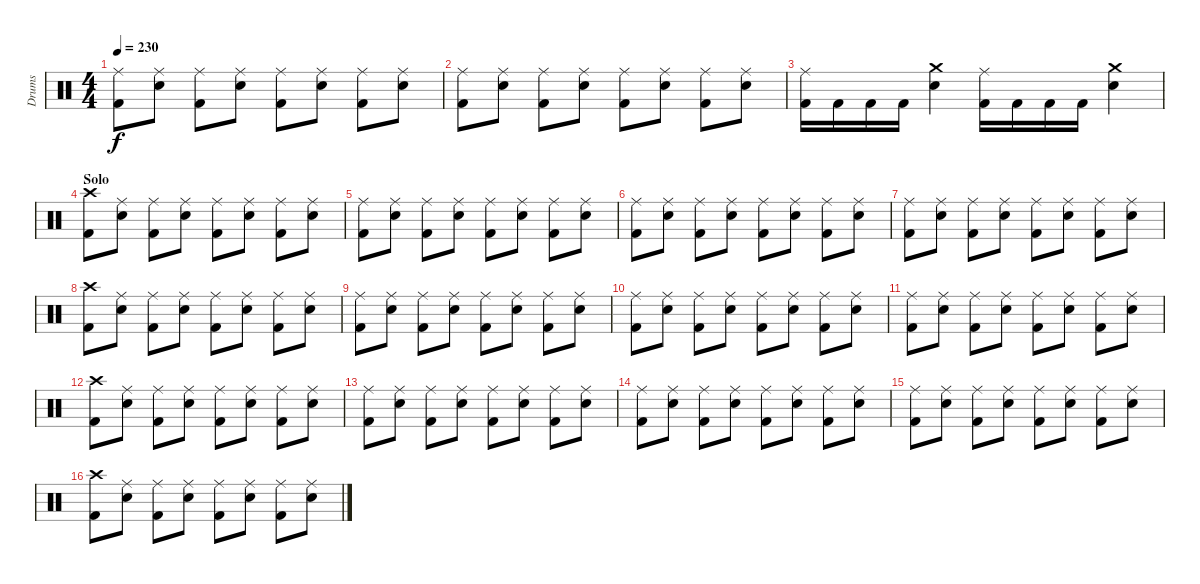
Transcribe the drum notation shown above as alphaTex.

\track ("Drums" "Drums") {instrument percussion}
\staff {score}
\articulation defaults
\ts (4 4)
\tempo 230
\clef neutral
\ks c
("Ride (middle)" "Kick (hit) 2").8{dy f} ("Ride (middle)" "Snare (hit) 2").8 ("Ride (middle)" "Kick (hit) 2").8 ("Ride (middle)" "Snare (hit) 2").8 ("Ride (middle)" "Kick (hit) 2").8 ("Ride (middle)" "Snare (hit) 2").8 ("Ride (middle)" "Kick (hit) 2").8 ("Ride (middle)" "Snare (hit) 2").8 |
("Ride (middle)" "Kick (hit) 2").8 ("Ride (middle)" "Snare (hit) 2").8 ("Ride (middle)" "Kick (hit) 2").8 ("Ride (middle)" "Snare (hit) 2").8 ("Ride (middle)" "Kick (hit) 2").8 ("Ride (middle)" "Snare (hit) 2").8 ("Ride (middle)" "Kick (hit) 2").8 ("Ride (middle)" "Snare (hit) 2").8 |
\section ("" "")
("Ride (middle)" "Kick (hit) 2").16 "Kick (hit) 2".16 "Kick (hit) 2".16 "Kick (hit) 2".16 ("Crash medium (hit)" "Snare (hit) 2").4 ("Ride (middle)" "Kick (hit) 2").16 "Kick (hit) 2".16 "Kick (hit) 2".16 "Kick (hit) 2".16 ("Crash medium (hit)" "Snare (hit) 2").4 |
\section ("" "Solo")
("Crash high (hit)" "Kick (hit) 2").8 ("Ride (middle)" "Snare (hit) 2").8 ("Ride (middle)" "Kick (hit) 2").8 ("Ride (middle)" "Snare (hit) 2").8 ("Ride (middle)" "Kick (hit) 2").8 ("Ride (middle)" "Snare (hit) 2").8 ("Ride (middle)" "Kick (hit) 2").8 ("Ride (middle)" "Snare (hit) 2").8 |
("Ride (middle)" "Kick (hit) 2").8 ("Ride (middle)" "Snare (hit) 2").8 ("Ride (middle)" "Kick (hit) 2").8 ("Ride (middle)" "Snare (hit) 2").8 ("Ride (middle)" "Kick (hit) 2").8 ("Ride (middle)" "Snare (hit) 2").8 ("Ride (middle)" "Kick (hit) 2").8 ("Ride (middle)" "Snare (hit) 2").8 |
("Ride (middle)" "Kick (hit) 2").8 ("Ride (middle)" "Snare (hit) 2").8 ("Ride (middle)" "Kick (hit) 2").8 ("Ride (middle)" "Snare (hit) 2").8 ("Ride (middle)" "Kick (hit) 2").8 ("Ride (middle)" "Snare (hit) 2").8 ("Ride (middle)" "Kick (hit) 2").8 ("Ride (middle)" "Snare (hit) 2").8 |
("Ride (middle)" "Kick (hit) 2").8 ("Ride (middle)" "Snare (hit) 2").8 ("Ride (middle)" "Kick (hit) 2").8 ("Ride (middle)" "Snare (hit) 2").8 ("Ride (middle)" "Kick (hit) 2").8 ("Ride (middle)" "Snare (hit) 2").8 ("Ride (middle)" "Kick (hit) 2").8 ("Ride (middle)" "Snare (hit) 2").8 |
("Crash high (hit)" "Kick (hit) 2").8 ("Ride (middle)" "Snare (hit) 2").8 ("Ride (middle)" "Kick (hit) 2").8 ("Ride (middle)" "Snare (hit) 2").8 ("Ride (middle)" "Kick (hit) 2").8 ("Ride (middle)" "Snare (hit) 2").8 ("Ride (middle)" "Kick (hit) 2").8 ("Ride (middle)" "Snare (hit) 2").8 |
("Ride (middle)" "Kick (hit) 2").8 ("Ride (middle)" "Snare (hit) 2").8 ("Ride (middle)" "Kick (hit) 2").8 ("Ride (middle)" "Snare (hit) 2").8 ("Ride (middle)" "Kick (hit) 2").8 ("Ride (middle)" "Snare (hit) 2").8 ("Ride (middle)" "Kick (hit) 2").8 ("Ride (middle)" "Snare (hit) 2").8 |
("Ride (middle)" "Kick (hit) 2").8 ("Ride (middle)" "Snare (hit) 2").8 ("Ride (middle)" "Kick (hit) 2").8 ("Ride (middle)" "Snare (hit) 2").8 ("Ride (middle)" "Kick (hit) 2").8 ("Ride (middle)" "Snare (hit) 2").8 ("Ride (middle)" "Kick (hit) 2").8 ("Ride (middle)" "Snare (hit) 2").8 |
("Ride (middle)" "Kick (hit) 2").8 ("Ride (middle)" "Snare (hit) 2").8 ("Ride (middle)" "Kick (hit) 2").8 ("Ride (middle)" "Snare (hit) 2").8 ("Ride (middle)" "Kick (hit) 2").8 ("Ride (middle)" "Snare (hit) 2").8 ("Ride (middle)" "Kick (hit) 2").8 ("Ride (middle)" "Snare (hit) 2").8 |
("Crash high (hit)" "Kick (hit) 2").8 ("Ride (middle)" "Snare (hit) 2").8 ("Ride (middle)" "Kick (hit) 2").8 ("Ride (middle)" "Snare (hit) 2").8 ("Ride (middle)" "Kick (hit) 2").8 ("Ride (middle)" "Snare (hit) 2").8 ("Ride (middle)" "Kick (hit) 2").8 ("Ride (middle)" "Snare (hit) 2").8 |
("Ride (middle)" "Kick (hit) 2").8 ("Ride (middle)" "Snare (hit) 2").8 ("Ride (middle)" "Kick (hit) 2").8 ("Ride (middle)" "Snare (hit) 2").8 ("Ride (middle)" "Kick (hit) 2").8 ("Ride (middle)" "Snare (hit) 2").8 ("Ride (middle)" "Kick (hit) 2").8 ("Ride (middle)" "Snare (hit) 2").8 |
("Ride (middle)" "Kick (hit) 2").8 ("Ride (middle)" "Snare (hit) 2").8 ("Ride (middle)" "Kick (hit) 2").8 ("Ride (middle)" "Snare (hit) 2").8 ("Ride (middle)" "Kick (hit) 2").8 ("Ride (middle)" "Snare (hit) 2").8 ("Ride (middle)" "Kick (hit) 2").8 ("Ride (middle)" "Snare (hit) 2").8 |
("Ride (middle)" "Kick (hit) 2").8 ("Ride (middle)" "Snare (hit) 2").8 ("Ride (middle)" "Kick (hit) 2").8 ("Ride (middle)" "Snare (hit) 2").8 ("Ride (middle)" "Kick (hit) 2").8 ("Ride (middle)" "Snare (hit) 2").8 ("Ride (middle)" "Kick (hit) 2").8 ("Ride (middle)" "Snare (hit) 2").8 |
("Crash high (hit)" "Kick (hit) 2").8 ("Ride (middle)" "Snare (hit) 2").8 ("Ride (middle)" "Kick (hit) 2").8 ("Ride (middle)" "Snare (hit) 2").8 ("Ride (middle)" "Kick (hit) 2").8 ("Ride (middle)" "Snare (hit) 2").8 ("Ride (middle)" "Kick (hit) 2").8 ("Ride (middle)" "Snare (hit) 2").8
